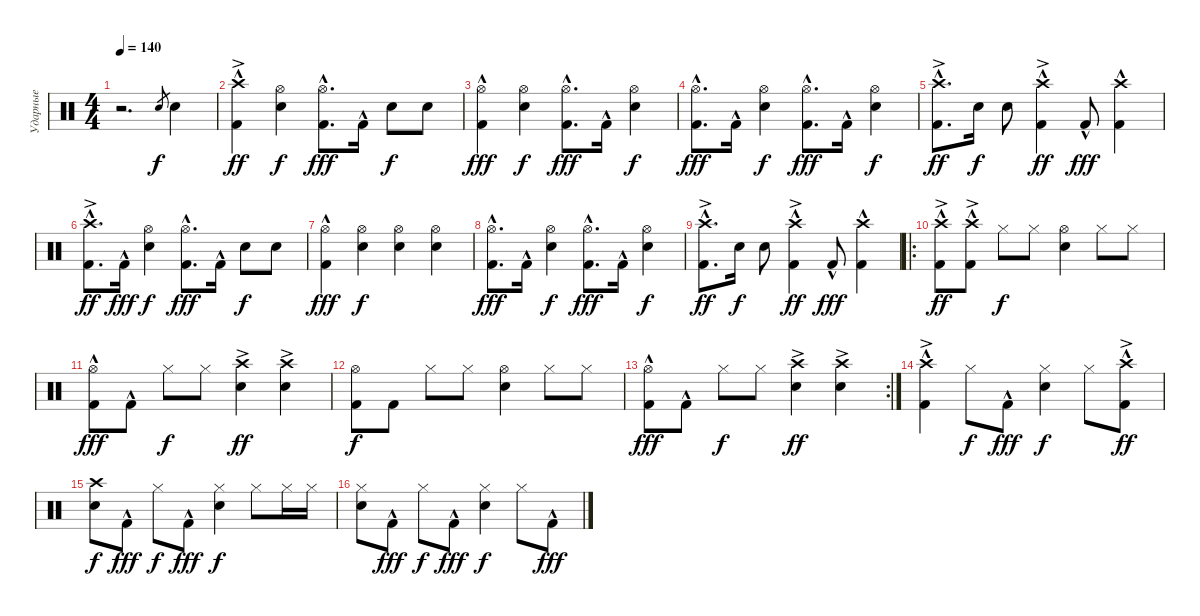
\track ("Ударные" "Ударные") {instrument percussion}
\staff {score}
\articulation defaults
\ts (4 4)
\tempo 140
\clef neutral
\ks c
r.2{d dy f} "Snare (hit) 2".8{gr} "Snare (hit) 2".4 |
("Kick (hit) 2"{hac} "Crash high (hit)"{ac}).4{dy ff} ("Snare (hit) 2" "Hi-Hat (open)").4{dy f} ("Kick (hit) 2"{hac} "Hi-Hat (open)").8{d dy fff} "Kick (hit) 2"{hac}.16 "Snare (hit) 2".8{dy f} "Snare (hit) 2".8 |
("Kick (hit) 2"{hac} "Hi-Hat (open)").4{dy fff} ("Snare (hit) 2" "Hi-Hat (open)").4{dy f} ("Kick (hit) 2"{hac} "Hi-Hat (open)").8{d dy fff} "Kick (hit) 2"{hac}.16 ("Snare (hit) 2" "Hi-Hat (open)").4{dy f} |
("Kick (hit) 2"{hac} "Hi-Hat (open)").8{d dy fff} "Kick (hit) 2"{hac}.16 ("Snare (hit) 2" "Hi-Hat (open)").4{dy f} ("Kick (hit) 2"{hac} "Hi-Hat (open)").8{d dy fff} "Kick (hit) 2"{hac}.16 ("Snare (hit) 2" "Hi-Hat (open)").4{dy f} |
("Kick (hit) 2"{hac} "Crash high (hit)"{ac}).8{d dy ff} "Snare (hit) 2".16{dy f} "Snare (hit) 2".8 ("Kick (hit) 2"{hac} "Crash high (hit)"{ac}).4{dy ff} "Kick (hit) 2"{hac}.8{dy fff} ("Kick (hit) 2"{hac} "Crash high (hit)").4 |
("Kick (hit) 2"{hac} "Crash high (hit)"{ac}).8{d dy ff} "Kick (hit) 2"{hac}.16{dy fff} ("Snare (hit) 2" "Hi-Hat (open)").4{dy f} ("Kick (hit) 2"{hac} "Hi-Hat (open)").8{d dy fff} "Kick (hit) 2"{hac}.16 "Snare (hit) 2".8{dy f} "Snare (hit) 2".8 |
("Kick (hit) 2"{hac} "Hi-Hat (open)").4{dy fff} ("Snare (hit) 2" "Hi-Hat (open)").4{dy f} ("Snare (hit) 2" "Hi-Hat (open)").4 ("Snare (hit) 2" "Hi-Hat (open)").4 |
("Kick (hit) 2"{hac} "Hi-Hat (open)").8{d dy fff} "Kick (hit) 2"{hac}.16 ("Snare (hit) 2" "Hi-Hat (open)").4{dy f} ("Kick (hit) 2"{hac} "Hi-Hat (open)").8{d dy fff} "Kick (hit) 2"{hac}.16 ("Snare (hit) 2" "Hi-Hat (open)").4{dy f} |
("Kick (hit) 2"{hac} "Crash high (hit)"{ac}).8{d dy ff} "Snare (hit) 2".16{dy f} "Snare (hit) 2".8 ("Kick (hit) 2"{hac} "Crash high (hit)"{ac}).4{dy ff} "Kick (hit) 2"{hac}.8{dy fff} ("Kick (hit) 2"{hac} "Crash high (hit)").4 |
\ro
("Kick (hit) 2"{hac} "Crash high (hit)"{ac}).8{dy ff} ("Kick (hit) 2"{hac} "Crash high (hit)"{ac}).8 "Hi-Hat (closed)".8{dy f} "Hi-Hat (closed)".8 ("Snare (hit) 2" "Hi-Hat (open)").4 "Hi-Hat (closed)".8 "Hi-Hat (closed)".8 |
("Kick (hit) 2"{hac} "Hi-Hat (open)").8{dy fff} "Kick (hit) 2"{hac}.8 "Hi-Hat (closed)".8{dy f} "Hi-Hat (closed)".8 ("Snare (hit) 2" "Crash high (hit)"{ac}).4{dy ff} ("Snare (hit) 2" "Crash high (hit)"{ac}).4 |
("Kick (hit) 2" "Hi-Hat (open)").8{dy f} "Kick (hit) 2".8 "Hi-Hat (closed)".8 "Hi-Hat (closed)".8 ("Snare (hit) 2" "Hi-Hat (open)").4 "Hi-Hat (closed)".8 "Hi-Hat (closed)".8 |
\rc 2
("Kick (hit) 2"{hac} "Hi-Hat (open)").8{dy fff} "Kick (hit) 2"{hac}.8 "Hi-Hat (closed)".8{dy f} "Hi-Hat (closed)".8 ("Snare (hit) 2" "Crash high (hit)"{ac}).4{dy ff} ("Snare (hit) 2" "Crash high (hit)"{ac}).4 |
("Kick (hit) 2"{hac} "Crash high (hit)"{ac}).4 "Hi-Hat (closed)".8{dy f} "Kick (hit) 2"{hac}.8{dy fff} ("Snare (hit) 2" "Hi-Hat (closed)").4{dy f} "Hi-Hat (closed)".8 ("Kick (hit) 2"{hac} "Crash high (hit)"{ac}).8{dy ff} |
("Snare (hit) 2" "Crash high (hit)").8{dy f} "Kick (hit) 2"{hac}.8{dy fff} "Hi-Hat (closed)".8{dy f} "Kick (hit) 2"{hac}.8{dy fff} ("Snare (hit) 2" "Hi-Hat (closed)").4{dy f} "Hi-Hat (closed)".8 "Hi-Hat (closed)".16 "Hi-Hat (closed)".16 |
("Snare (hit) 2" "Hi-Hat (closed)").8 "Kick (hit) 2"{hac}.8{dy fff} "Hi-Hat (closed)".8{dy f} "Kick (hit) 2"{hac}.8{dy fff} ("Snare (hit) 2" "Hi-Hat (closed)").4{dy f} "Hi-Hat (closed)".8 "Kick (hit) 2"{hac}.8{dy fff}
